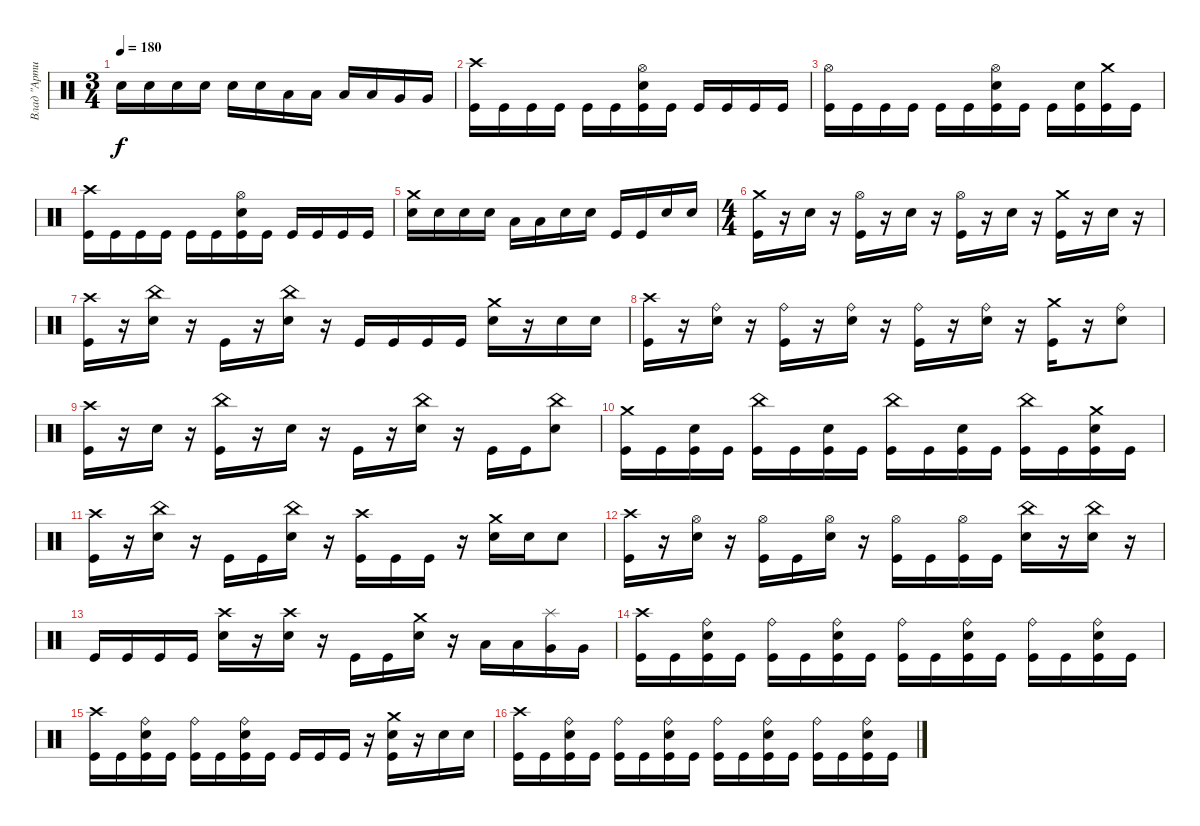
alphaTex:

\track ("Влад \"Артист\"" "Влад \"Арти") {instrument percussion}
\staff {score}
\articulation defaults
\ts (3 4)
\tempo 180
\clef neutral
\ks c "Snare (hit) 2".16{dy f} "Snare (hit) 2".16 "Snare (hit) 2".16 "Snare (hit) 2".16 "Snare (hit) 2".16 "Snare (hit) 2".16 "Low Tom (hit)".16 "Low Tom (hit)".16 "Low Tom (hit)".16 "Low Tom (hit)".16 "Very Low Tom (hit)".16 "Very Low Tom (hit)".16
|
("Crash high (hit)" "Kick (hit)").16 "Kick (hit)".16 "Kick (hit)".16 "Kick (hit)".16 "Kick (hit)".16 "Kick (hit)".16 ("Hi-Hat (open)" "Snare (hit) 2" "Kick (hit)").16 "Kick (hit)".16 "Kick (hit)".16 "Kick (hit)".16 "Kick (hit)".16 "Kick (hit)".16 |
("Hi-Hat (open)" "Kick (hit)").16 "Kick (hit)".16 "Kick (hit)".16 "Kick (hit)".16 "Kick (hit)".16 "Kick (hit)".16 ("Snare (hit) 2" "Hi-Hat (open)" "Kick (hit)").16 "Kick (hit)".16 "Kick (hit)".16 ("Snare (hit) 2" "Kick (hit)").16 ("Crash medium (hit)" "Kick (hit)").16 "Kick (hit)".16 |
("Crash high (hit)" "Kick (hit)").16 "Kick (hit)".16 "Kick (hit)".16 "Kick (hit)".16 "Kick (hit)".16 "Kick (hit)".16 ("Hi-Hat (open)" "Snare (hit) 2" "Kick (hit)").16 "Kick (hit)".16 "Kick (hit)".16 "Kick (hit)".16 "Kick (hit)".16 "Kick (hit)".16 |
("Snare (hit) 2" "Crash medium (hit)").16 "Snare (hit) 2".16 "Snare (hit) 2".16 "Snare (hit) 2".16 "Low Tom (hit)".16 "Low Tom (hit)".16 "Snare (hit) 2".16 "Snare (hit) 2".16 "Kick (hit)".16 "Kick (hit)".16 "Snare (hit) 2".16 "Snare (hit) 2".16 |
\ts (4 4)
("Crash medium (hit)" "Kick (hit)").16 r.16 "Snare (hit) 2".16 r.16 ("Hi-Hat (open)" "Kick (hit)").16 r.16 "Snare (hit) 2".16 r.16 ("Hi-Hat (open)" "Kick (hit)").16 r.16 "Snare (hit) 2".16 r.16 ("Crash medium (hit)" "Kick (hit)").16 r.16 "Snare (hit) 2".16 r.16 |
("Crash high (hit)" "Kick (hit)").16 r.16 ("China (hit)" "Snare (hit) 2").16 r.16 "Kick (hit)".16 r.16 ("China (hit)" "Snare (hit) 2").16 r.16 "Kick (hit)".16 "Kick (hit)".16 "Kick (hit)".16 "Kick (hit)".16 ("Crash medium (hit)" "Snare (hit) 2").16 r.16 "Snare (hit) 2".16 "Snare (hit) 2".16 |
("Crash high (hit)" "Kick (hit)").16 r.16 ("Snare (hit) 2" "Ride (bell)").16 r.16 ("Ride (bell)" "Kick (hit)").16 r.16 ("Snare (hit) 2" "Ride (bell)").16 r.16 ("Ride (bell)" "Kick (hit)").16 r.16 ("Ride (bell)" "Snare (hit) 2").16 r.16 ("Crash medium (hit)" "Kick (hit)").16 r.16 ("Ride (bell)" "Snare (hit) 2").8 |
("Crash high (hit)" "Kick (hit)").16 r.16 "Snare (hit) 2".16 r.16 ("China (hit)" "Kick (hit)").16 r.16 "Snare (hit) 2".16 r.16 "Kick (hit)".16 r.16 ("Snare (hit) 2" "China (hit)").16 r.16 "Kick (hit)".16 "Kick (hit)".16 ("China (hit)" "Snare (hit) 2").8 |
("Kick (hit)" "Crash medium (hit)").16 "Kick (hit)".16 ("Kick (hit)" "Snare (hit) 2").16 "Kick (hit)".16 ("China (hit)" "Kick (hit)").16 "Kick (hit)".16 ("Kick (hit)" "Snare (hit) 2").16 "Kick (hit)".16 ("China (hit)" "Kick (hit)").16 "Kick (hit)".16 ("Kick (hit)" "Snare (hit) 2").16 "Kick (hit)".16 ("China (hit)" "Kick (hit)").16 "Kick (hit)".16 ("Snare (hit) 2" "Kick (hit)" "Crash medium (hit)").16 "Kick (hit)".16 |
("Crash high (hit)" "Kick (hit)").16 r.16 ("Snare (hit) 2" "China (hit)").16 r.16 "Kick (hit)".16 "Kick (hit)".16 ("Snare (hit) 2" "China (hit)").16 r.16 ("Crash high (hit)" "Kick (hit)").16 "Kick (hit)".16 "Kick (hit)".16 r.16 ("Crash medium (hit)" "Snare (hit) 2").16 "Snare (hit) 2".16 "Snare (hit) 2".8 |
("Crash high (hit)" "Kick (hit)").16 r.16 ("Snare (hit) 2" "Hi-Hat (open)").16 r.16 ("Hi-Hat (open)" "Kick (hit)").16 "Kick (hit)".16 ("Hi-Hat (open)" "Snare (hit) 2").16 r.16 ("Hi-Hat (open)" "Kick (hit)").16 "Kick (hit)".16 ("Kick (hit)" "Hi-Hat (open)").16 "Kick (hit)".16 ("China (hit)" "Snare (hit) 2").16 r.16 ("China (hit)" "Snare (hit) 2").16 r.16 |
"Kick (hit)".16 "Kick (hit)".16 "Kick (hit)".16 "Kick (hit)".16 ("Crash high (hit)" "Snare (hit) 2").16 r.16 ("Snare (hit) 2" "Crash high (hit)").16 r.16 "Kick (hit)".16 "Kick (hit)".16 ("Snare (hit) 2" "Crash medium (hit)").16 r.16 "Low Tom (hit)".16 "Low Tom (hit)".16 ("Splash (hit)" "Very Low Tom (hit)").16 "Very Low Tom (hit)".16 |
("Kick (hit)" "Crash high (hit)").16 "Kick (hit)".16 ("Ride (bell)" "Kick (hit)" "Snare (hit) 2").16 "Kick (hit)".16 ("Ride (bell)" "Kick (hit)").16 "Kick (hit)".16 ("Snare (hit) 2" "Ride (bell)" "Kick (hit)").16 "Kick (hit)".16 ("Ride (bell)" "Kick (hit)").16 "Kick (hit)".16 ("Snare (hit) 2" "Kick (hit)" "Ride (bell)").16 "Kick (hit)".16 ("Ride (bell)" "Kick (hit)").16 "Kick (hit)".16 ("Snare (hit) 2" "Ride (bell)" "Kick (hit)").16 "Kick (hit)".16 |
("Kick (hit)" "Crash high (hit)").16 "Kick (hit)".16 ("Ride (bell)" "Kick (hit)" "Snare (hit) 2").16 "Kick (hit)".16 ("Ride (bell)" "Kick (hit)").16 "Kick (hit)".16 ("Snare (hit) 2" "Ride (bell)" "Kick (hit)").16 "Kick (hit)".16 "Kick (hit)".16 "Kick (hit)".16 "Kick (hit)".16 r.16 ("Kick (hit)" "Crash medium (hit)" "Snare (hit) 2").16 r.16 "Snare (hit) 2".16 "Snare (hit) 2".16 |
("Kick (hit)" "Crash high (hit)").16 "Kick (hit)".16 ("Ride (bell)" "Kick (hit)" "Snare (hit) 2").16 "Kick (hit)".16 ("Ride (bell)" "Kick (hit)").16 "Kick (hit)".16 ("Snare (hit) 2" "Ride (bell)" "Kick (hit)").16 "Kick (hit)".16 ("Ride (bell)" "Kick (hit)").16 "Kick (hit)".16 ("Snare (hit) 2" "Kick (hit)" "Ride (bell)").16 "Kick (hit)".16 ("Ride (bell)" "Kick (hit)").16 "Kick (hit)".16 ("Snare (hit) 2" "Ride (bell)" "Kick (hit)").16 "Kick (hit)".16
